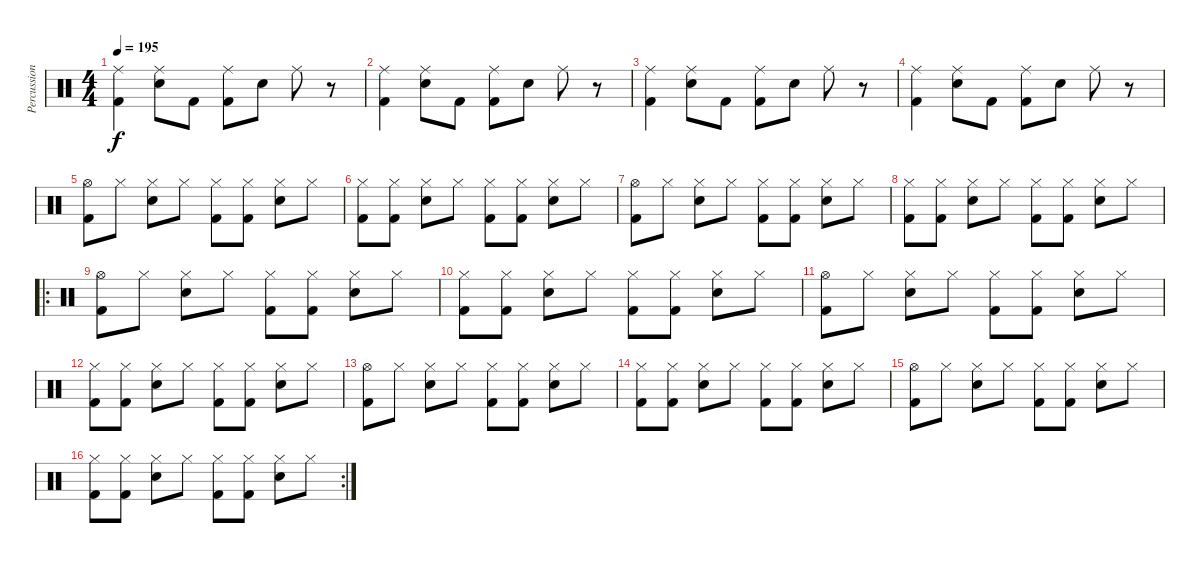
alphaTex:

\track ("Percussion" "Percussion") {instrument percussion}
\staff {score}
\articulation defaults
\ts (4 4)
\tempo 195
\clef neutral
\ks c
("Ride (middle)" "Kick (hit) 2").4{dy f} ("Ride (middle)" "Snare (hit) 2").8 "Kick (hit) 2".8 ("Ride (middle)" "Kick (hit) 2").8 "Snare (hit) 2".8 "Ride (middle)".8 r.8 |
("Ride (middle)" "Kick (hit) 2").4 ("Ride (middle)" "Snare (hit) 2").8 "Kick (hit) 2".8 ("Ride (middle)" "Kick (hit) 2").8 "Snare (hit) 2".8 "Ride (middle)".8 r.8 |
("Ride (middle)" "Kick (hit) 2").4 ("Ride (middle)" "Snare (hit) 2").8 "Kick (hit) 2".8 ("Ride (middle)" "Kick (hit) 2").8 "Snare (hit) 2".8 "Ride (middle)".8 r.8 |
("Ride (middle)" "Kick (hit) 2").4 ("Ride (middle)" "Snare (hit) 2").8 "Kick (hit) 2".8 ("Ride (middle)" "Kick (hit) 2").8 "Snare (hit) 2".8 "Ride (middle)".8 r.8 |
("Hi-Hat (open)" "Kick (hit) 2").8 "Hi-Hat (closed)".8 ("Hi-Hat (closed)" "Snare (hit) 2").8 "Hi-Hat (closed)".8 ("Hi-Hat (closed)" "Kick (hit) 2").8 ("Hi-Hat (closed)" "Kick (hit) 2").8 ("Hi-Hat (closed)" "Snare (hit) 2").8 "Hi-Hat (closed)".8 |
("Hi-Hat (closed)" "Kick (hit) 2").8 ("Hi-Hat (closed)" "Kick (hit) 2").8 ("Hi-Hat (closed)" "Snare (hit) 2").8 "Hi-Hat (closed)".8 ("Hi-Hat (closed)" "Kick (hit) 2").8 ("Hi-Hat (closed)" "Kick (hit) 2").8 ("Hi-Hat (closed)" "Snare (hit) 2").8 "Hi-Hat (closed)".8 |
("Hi-Hat (open)" "Kick (hit) 2").8 "Hi-Hat (closed)".8 ("Hi-Hat (closed)" "Snare (hit) 2").8 "Hi-Hat (closed)".8 ("Hi-Hat (closed)" "Kick (hit) 2").8 ("Hi-Hat (closed)" "Kick (hit) 2").8 ("Hi-Hat (closed)" "Snare (hit) 2").8 "Hi-Hat (closed)".8 |
("Hi-Hat (closed)" "Kick (hit) 2").8 ("Hi-Hat (closed)" "Kick (hit) 2").8 ("Hi-Hat (closed)" "Snare (hit) 2").8 "Hi-Hat (closed)".8 ("Hi-Hat (closed)" "Kick (hit) 2").8 ("Hi-Hat (closed)" "Kick (hit) 2").8 ("Hi-Hat (closed)" "Snare (hit) 2").8 "Hi-Hat (closed)".8 |
\ro
("Hi-Hat (open)" "Kick (hit) 2").8 "Hi-Hat (closed)".8 ("Hi-Hat (closed)" "Snare (hit) 2").8 "Hi-Hat (closed)".8 ("Hi-Hat (closed)" "Kick (hit) 2").8 ("Hi-Hat (closed)" "Kick (hit) 2").8 ("Hi-Hat (closed)" "Snare (hit) 2").8 "Hi-Hat (closed)".8 |
("Hi-Hat (closed)" "Kick (hit) 2").8 ("Hi-Hat (closed)" "Kick (hit) 2").8 ("Hi-Hat (closed)" "Snare (hit) 2").8 "Hi-Hat (closed)".8 ("Hi-Hat (closed)" "Kick (hit) 2").8 ("Hi-Hat (closed)" "Kick (hit) 2").8 ("Hi-Hat (closed)" "Snare (hit) 2").8 "Hi-Hat (closed)".8 |
("Hi-Hat (open)" "Kick (hit) 2").8 "Hi-Hat (closed)".8 ("Hi-Hat (closed)" "Snare (hit) 2").8 "Hi-Hat (closed)".8 ("Hi-Hat (closed)" "Kick (hit) 2").8 ("Hi-Hat (closed)" "Kick (hit) 2").8 ("Hi-Hat (closed)" "Snare (hit) 2").8 "Hi-Hat (closed)".8 |
("Hi-Hat (closed)" "Kick (hit) 2").8 ("Hi-Hat (closed)" "Kick (hit) 2").8 ("Hi-Hat (closed)" "Snare (hit) 2").8 "Hi-Hat (closed)".8 ("Hi-Hat (closed)" "Kick (hit) 2").8 ("Hi-Hat (closed)" "Kick (hit) 2").8 ("Hi-Hat (closed)" "Snare (hit) 2").8 "Hi-Hat (closed)".8 |
("Hi-Hat (open)" "Kick (hit) 2").8 "Hi-Hat (closed)".8 ("Hi-Hat (closed)" "Snare (hit) 2").8 "Hi-Hat (closed)".8 ("Hi-Hat (closed)" "Kick (hit) 2").8 ("Hi-Hat (closed)" "Kick (hit) 2").8 ("Hi-Hat (closed)" "Snare (hit) 2").8 "Hi-Hat (closed)".8 |
("Hi-Hat (closed)" "Kick (hit) 2").8 ("Hi-Hat (closed)" "Kick (hit) 2").8 ("Hi-Hat (closed)" "Snare (hit) 2").8 "Hi-Hat (closed)".8 ("Hi-Hat (closed)" "Kick (hit) 2").8 ("Hi-Hat (closed)" "Kick (hit) 2").8 ("Hi-Hat (closed)" "Snare (hit) 2").8 "Hi-Hat (closed)".8 |
("Hi-Hat (open)" "Kick (hit) 2").8 "Hi-Hat (closed)".8 ("Hi-Hat (closed)" "Snare (hit) 2").8 "Hi-Hat (closed)".8 ("Hi-Hat (closed)" "Kick (hit) 2").8 ("Hi-Hat (closed)" "Kick (hit) 2").8 ("Hi-Hat (closed)" "Snare (hit) 2").8 "Hi-Hat (closed)".8 |
\rc 2
("Hi-Hat (closed)" "Kick (hit) 2").8 ("Hi-Hat (closed)" "Kick (hit) 2").8 ("Hi-Hat (closed)" "Snare (hit) 2").8 "Hi-Hat (closed)".8 ("Hi-Hat (closed)" "Kick (hit) 2").8 ("Hi-Hat (closed)" "Kick (hit) 2").8 ("Hi-Hat (closed)" "Snare (hit) 2").8 "Hi-Hat (closed)".8
